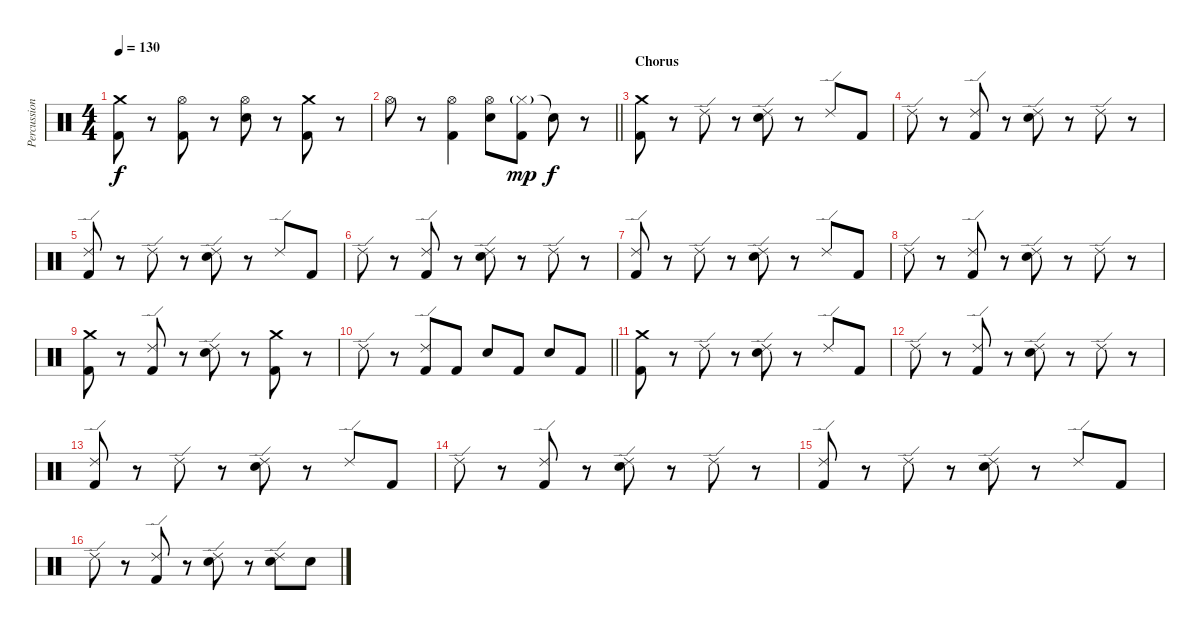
\track ("Percussion" "Percussion") {instrument percussion}
\staff {score}
\articulation defaults
\ts (4 4)
\tempo 130
\clef neutral
\ks c
("Crash medium (hit)" "Kick (hit) 2").8{dy f} r.8 ("Hi-Hat (open)" "Kick (hit) 2").8 r.8 ("Hi-Hat (open)" "Electric Snare (hit)").8 r.8 ("Crash medium (hit)" "Kick (hit) 2").8 r.8 |
\barLineRight lightlight "Hi-Hat (open)".8
r.8 ("Hi-Hat (open)" "Kick (hit) 2").4 ("Hi-Hat (open)" "Electric Snare (hit)").8 ("Hi-Hat (closed)"{g} "Kick (hit) 2").8{dy mp} "Snare (hit)"{t}.8{dy f} r.8 |
\section ("" "Chorus")
("Crash medium (hit)" "Kick (hit) 2").8 r.8 "Ride (edge) 2".8 r.8 ("Ride (edge) 2" "Electric Snare (hit)").8 r.8 "Ride (edge) 2".8 "Kick (hit) 2".8 |
"Ride (edge) 2".8 r.8 ("Ride (edge) 2" "Kick (hit) 2").8 r.8 ("Ride (edge) 2" "Electric Snare (hit)").8 r.8 "Ride (edge) 2".8 r.8 |
("Ride (edge) 2" "Kick (hit) 2").8 r.8 "Ride (edge) 2".8 r.8 ("Ride (edge) 2" "Electric Snare (hit)").8 r.8 "Ride (edge) 2".8 "Kick (hit) 2".8 |
"Ride (edge) 2".8 r.8 ("Ride (edge) 2" "Kick (hit) 2").8 r.8 ("Ride (edge) 2" "Electric Snare (hit)").8 r.8 "Ride (edge) 2".8 r.8 |
("Ride (edge) 2" "Kick (hit) 2").8 r.8 "Ride (edge) 2".8 r.8 ("Ride (edge) 2" "Electric Snare (hit)").8 r.8 "Ride (edge) 2".8 "Kick (hit) 2".8 |
"Ride (edge) 2".8 r.8 ("Ride (edge) 2" "Kick (hit) 2").8 r.8 ("Ride (edge) 2" "Electric Snare (hit)").8 r.8 "Ride (edge) 2".8 r.8 |
("Crash medium (hit)" "Kick (hit) 2").8 r.8 ("Ride (edge) 2" "Kick (hit) 2").8 r.8 ("Ride (edge) 2" "Electric Snare (hit)").8 r.8 ("Crash medium (hit)" "Kick (hit) 2").8 r.8 |
\barLineRight lightlight "Ride (edge) 2".8
r.8 ("Ride (edge) 2" "Kick (hit) 2").8 "Kick (hit) 2".8 "Electric Snare (hit)".8 "Kick (hit) 2".8 "Electric Snare (hit)".8 "Kick (hit) 2".8 |
("Crash medium (hit)" "Kick (hit) 2").8 r.8 "Ride (edge) 2".8 r.8 ("Ride (edge) 2" "Electric Snare (hit)").8 r.8 "Ride (edge) 2".8 "Kick (hit) 2".8 |
"Ride (edge) 2".8 r.8 ("Ride (edge) 2" "Kick (hit) 2").8 r.8 ("Ride (edge) 2" "Electric Snare (hit)").8 r.8 "Ride (edge) 2".8 r.8 |
("Ride (edge) 2" "Kick (hit) 2").8 r.8 "Ride (edge) 2".8 r.8 ("Ride (edge) 2" "Electric Snare (hit)").8 r.8 "Ride (edge) 2".8 "Kick (hit) 2".8 |
"Ride (edge) 2".8 r.8 ("Ride (edge) 2" "Kick (hit) 2").8 r.8 ("Ride (edge) 2" "Electric Snare (hit)").8 r.8 "Ride (edge) 2".8 r.8 |
("Ride (edge) 2" "Kick (hit) 2").8 r.8 "Ride (edge) 2".8 r.8 ("Ride (edge) 2" "Electric Snare (hit)").8 r.8 "Ride (edge) 2".8 "Kick (hit) 2".8 |
"Ride (edge) 2".8 r.8 ("Ride (edge) 2" "Kick (hit) 2").8 r.8 ("Ride (edge) 2" "Electric Snare (hit)").8 r.8 ("Ride (edge) 2" "Electric Snare (hit)").8 "Electric Snare (hit)".8
